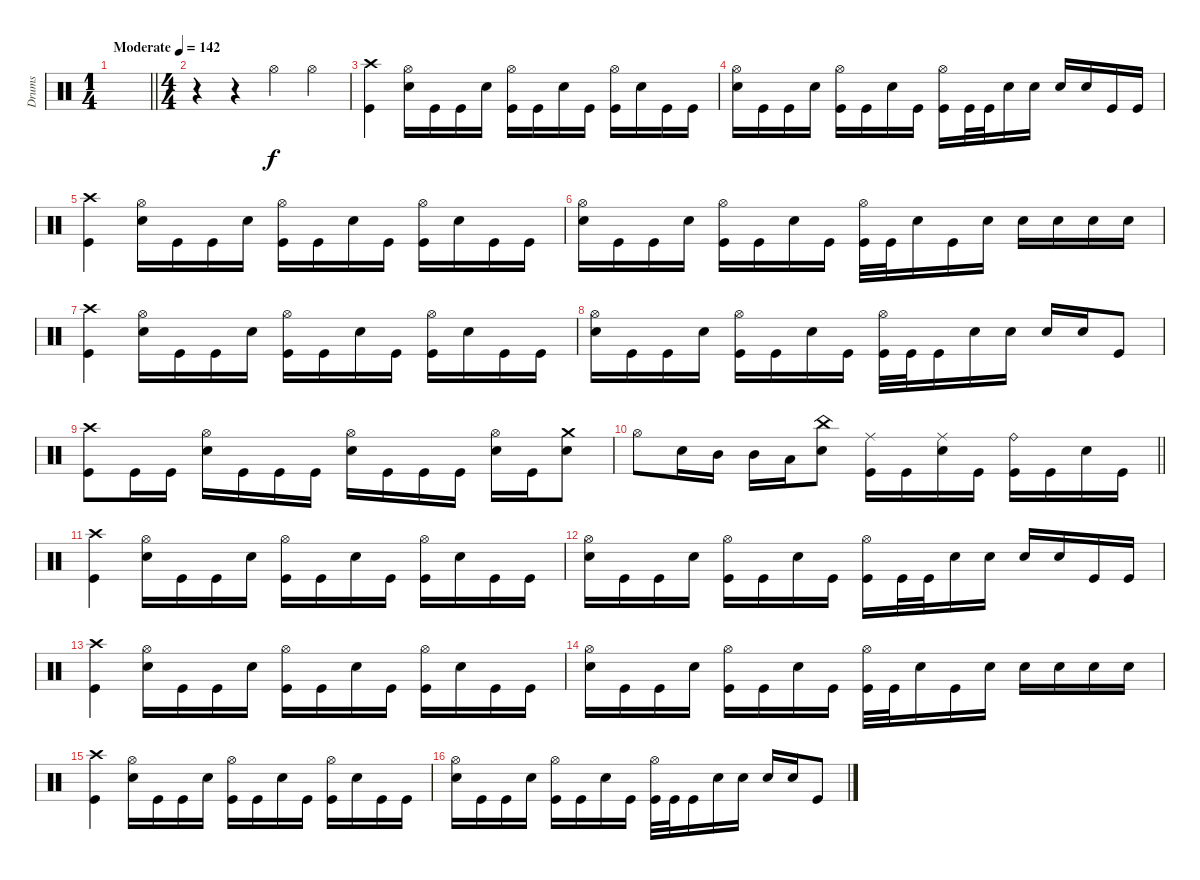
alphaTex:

\track ("Drums" "Drums") {instrument percussion}
\staff
\articulation defaults
\ts (1 4)
\tempo (142 "Moderate")
\clef neutral
\barLineRight lightlight
\ks c
|
\ts (4 4)
r.4 r.4 "Hi-Hat (open)".4 "Hi-Hat (open)".4 |
("Crash high (hit)" "Kick (hit)").4 ("Hi-Hat (open)" "Electric Snare (hit)").16 "Kick (hit)".16 "Kick (hit)".16 "Electric Snare (hit)".16 ("Hi-Hat (open)" "Kick (hit)").16 "Kick (hit)".16 "Electric Snare (hit)".16 "Kick (hit)".16 ("Hi-Hat (open)" "Kick (hit)").16 "Electric Snare (hit)".16 "Kick (hit)".16 "Kick (hit)".16 |
("Hi-Hat (open)" "Electric Snare (hit)").16 "Kick (hit)".16 "Kick (hit)".16 "Electric Snare (hit)".16 ("Hi-Hat (open)" "Kick (hit)").16 "Kick (hit)".16 "Electric Snare (hit)".16 "Kick (hit)".16 ("Hi-Hat (open)" "Kick (hit)").16 "Kick (hit)".32 "Kick (hit)".32 "Electric Snare (hit)".16 "Electric Snare (hit)".16 "Electric Snare (hit)".16 "Electric Snare (hit)".16 "Kick (hit)".16 "Kick (hit)".16 |
("Crash high (hit)" "Kick (hit)").4 ("Hi-Hat (open)" "Electric Snare (hit)").16 "Kick (hit)".16 "Kick (hit)".16 "Electric Snare (hit)".16 ("Hi-Hat (open)" "Kick (hit)").16 "Kick (hit)".16 "Electric Snare (hit)".16 "Kick (hit)".16 ("Hi-Hat (open)" "Kick (hit)").16 "Electric Snare (hit)".16 "Kick (hit)".16 "Kick (hit)".16 |
("Hi-Hat (open)" "Electric Snare (hit)").16 "Kick (hit)".16 "Kick (hit)".16 "Electric Snare (hit)".16 ("Hi-Hat (open)" "Kick (hit)").16 "Kick (hit)".16 "Electric Snare (hit)".16 "Kick (hit)".16 ("Hi-Hat (open)" "Kick (hit)").32 "Kick (hit)".32 "Electric Snare (hit)".16 "Kick (hit)".16 "Electric Snare (hit)".16 "Electric Snare (hit)".16 "Electric Snare (hit)".16 "Electric Snare (hit)".16 "Electric Snare (hit)".16 |
("Crash high (hit)" "Kick (hit)").4 ("Hi-Hat (open)" "Electric Snare (hit)").16 "Kick (hit)".16 "Kick (hit)".16 "Electric Snare (hit)".16 ("Hi-Hat (open)" "Kick (hit)").16 "Kick (hit)".16 "Electric Snare (hit)".16 "Kick (hit)".16 ("Hi-Hat (open)" "Kick (hit)").16 "Electric Snare (hit)".16 "Kick (hit)".16 "Kick (hit)".16 |
("Hi-Hat (open)" "Electric Snare (hit)").16 "Kick (hit)".16 "Kick (hit)".16 "Electric Snare (hit)".16 ("Hi-Hat (open)" "Kick (hit)").16 "Kick (hit)".16 "Electric Snare (hit)".16 "Kick (hit)".16 ("Hi-Hat (open)" "Kick (hit)").32 "Kick (hit)".32 "Kick (hit)".16 "Electric Snare (hit)".16 "Electric Snare (hit)".16 "Electric Snare (hit)".16 "Electric Snare (hit)".16 "Kick (hit)".8 |
("Crash high (hit)" "Kick (hit)").8 "Kick (hit)".16 "Kick (hit)".16 ("Hi-Hat (open)" "Electric Snare (hit)").16 "Kick (hit)".16 "Kick (hit)".16 "Kick (hit)".16 ("Hi-Hat (open)" "Electric Snare (hit)").16 "Kick (hit)".16 "Kick (hit)".16 "Kick (hit)".16 ("Hi-Hat (open)" "Electric Snare (hit)").16 "Kick (hit)".16 ("Crash medium (hit)" "Electric Snare (hit)").8 |
\barLineRight lightlight "Hi-Hat (open)".8 "Electric Snare (hit)".16 "Mid Tom (hit)".16 "Mid Tom (hit)".16 "Low Tom (hit)".16
("China (hit)" "Electric Snare (hit)").8 ("Ride (middle)" "Kick (hit)").16 "Kick (hit)".16 ("Ride (middle)" "Electric Snare (hit)").16 "Kick (hit)".16 ("Ride (bell)" "Kick (hit)").16 "Kick (hit)".16 "Electric Snare (hit)".16 "Kick (hit)".16 |
("Crash high (hit)" "Kick (hit)").4 ("Hi-Hat (open)" "Electric Snare (hit)").16 "Kick (hit)".16 "Kick (hit)".16 "Electric Snare (hit)".16 ("Hi-Hat (open)" "Kick (hit)").16 "Kick (hit)".16 "Electric Snare (hit)".16 "Kick (hit)".16 ("Hi-Hat (open)" "Kick (hit)").16 "Electric Snare (hit)".16 "Kick (hit)".16 "Kick (hit)".16 |
("Hi-Hat (open)" "Electric Snare (hit)").16 "Kick (hit)".16 "Kick (hit)".16 "Electric Snare (hit)".16 ("Hi-Hat (open)" "Kick (hit)").16 "Kick (hit)".16 "Electric Snare (hit)".16 "Kick (hit)".16 ("Hi-Hat (open)" "Kick (hit)").16 "Kick (hit)".32 "Kick (hit)".32 "Electric Snare (hit)".16 "Electric Snare (hit)".16 "Electric Snare (hit)".16 "Electric Snare (hit)".16 "Kick (hit)".16 "Kick (hit)".16 |
("Crash high (hit)" "Kick (hit)").4 ("Hi-Hat (open)" "Electric Snare (hit)").16 "Kick (hit)".16 "Kick (hit)".16 "Electric Snare (hit)".16 ("Hi-Hat (open)" "Kick (hit)").16 "Kick (hit)".16 "Electric Snare (hit)".16 "Kick (hit)".16 ("Hi-Hat (open)" "Kick (hit)").16 "Electric Snare (hit)".16 "Kick (hit)".16 "Kick (hit)".16 |
("Hi-Hat (open)" "Electric Snare (hit)").16 "Kick (hit)".16 "Kick (hit)".16 "Electric Snare (hit)".16 ("Hi-Hat (open)" "Kick (hit)").16 "Kick (hit)".16 "Electric Snare (hit)".16 "Kick (hit)".16 ("Hi-Hat (open)" "Kick (hit)").32 "Kick (hit)".32 "Electric Snare (hit)".16 "Kick (hit)".16 "Electric Snare (hit)".16 "Electric Snare (hit)".16 "Electric Snare (hit)".16 "Electric Snare (hit)".16 "Electric Snare (hit)".16 |
("Crash high (hit)" "Kick (hit)").4 ("Hi-Hat (open)" "Electric Snare (hit)").16 "Kick (hit)".16 "Kick (hit)".16 "Electric Snare (hit)".16 ("Hi-Hat (open)" "Kick (hit)").16 "Kick (hit)".16 "Electric Snare (hit)".16 "Kick (hit)".16 ("Hi-Hat (open)" "Kick (hit)").16 "Electric Snare (hit)".16 "Kick (hit)".16 "Kick (hit)".16 |
("Hi-Hat (open)" "Electric Snare (hit)").16 "Kick (hit)".16 "Kick (hit)".16 "Electric Snare (hit)".16 ("Hi-Hat (open)" "Kick (hit)").16 "Kick (hit)".16 "Electric Snare (hit)".16 "Kick (hit)".16 ("Hi-Hat (open)" "Kick (hit)").32 "Kick (hit)".32 "Kick (hit)".16 "Electric Snare (hit)".16 "Electric Snare (hit)".16 "Electric Snare (hit)".16 "Electric Snare (hit)".16 "Kick (hit)".8
